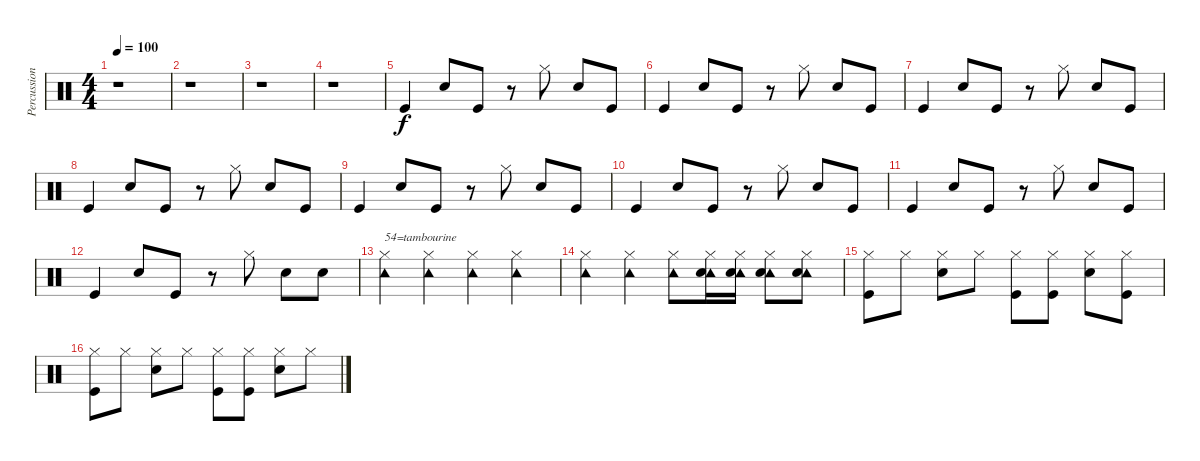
\track ("Percussion" "Percussion") {instrument percussion}
\staff {score}
\articulation defaults
\ts (4 4)
\tempo 100
\clef neutral
\ks c
r.1{dy f} |
r.1 |
r.1 |
r.1 |
"Kick (hit)".4 "Snare (hit) 2".8 "Kick (hit)".8 r.8 "Hi-Hat (closed)".8 "Snare (hit) 2".8 "Kick (hit)".8 |
"Kick (hit)".4 "Snare (hit) 2".8 "Kick (hit)".8 r.8 "Hi-Hat (closed)".8 "Snare (hit) 2".8 "Kick (hit)".8 |
"Kick (hit)".4 "Snare (hit) 2".8 "Kick (hit)".8 r.8 "Hi-Hat (closed)".8 "Snare (hit) 2".8 "Kick (hit)".8 |
"Kick (hit)".4 "Snare (hit) 2".8 "Kick (hit)".8 r.8 "Hi-Hat (closed)".8 "Snare (hit) 2".8 "Kick (hit)".8 |
"Kick (hit)".4 "Snare (hit) 2".8 "Kick (hit)".8 r.8 "Hi-Hat (closed)".8 "Snare (hit) 2".8 "Kick (hit)".8 |
"Kick (hit)".4 "Snare (hit) 2".8 "Kick (hit)".8 r.8 "Hi-Hat (closed)".8 "Snare (hit) 2".8 "Kick (hit)".8 |
"Kick (hit)".4 "Snare (hit) 2".8 "Kick (hit)".8 r.8 "Hi-Hat (closed)".8 "Snare (hit) 2".8 "Kick (hit)".8 |
"Kick (hit)".4 "Snare (hit) 2".8 "Kick (hit)".8 r.8 "Hi-Hat (closed)".8 "Snare (hit) 2".8 "Snare (hit) 2".8 |
("Hi-Hat (closed)" "Tambourine (hit)").4{txt "54=tambourine"} ("Hi-Hat (closed)" "Tambourine (hit)").4 ("Hi-Hat (closed)" "Tambourine (hit)").4 ("Hi-Hat (closed)" "Tambourine (hit)").4 |
("Hi-Hat (closed)" "Tambourine (hit)").4 ("Hi-Hat (closed)" "Tambourine (hit)").4 ("Hi-Hat (closed)" "Tambourine (hit)").8 ("Hi-Hat (closed)" "Tambourine (hit)" "Snare (hit) 2").16 ("Hi-Hat (closed)" "Tambourine (hit)" "Snare (hit) 2").16 ("Hi-Hat (closed)" "Tambourine (hit)" "Snare (hit) 2").8 ("Hi-Hat (closed)" "Tambourine (hit)" "Snare (hit) 2").8 |
("Hi-Hat (closed)" "Kick (hit)").8 "Hi-Hat (closed)".8 ("Hi-Hat (closed)" "Snare (hit) 2").8 "Hi-Hat (closed)".8 ("Hi-Hat (closed)" "Kick (hit)").8 ("Hi-Hat (closed)" "Kick (hit)").8 ("Hi-Hat (closed)" "Snare (hit) 2").8 ("Hi-Hat (closed)" "Kick (hit)").8 |
("Hi-Hat (closed)" "Kick (hit)").8 "Hi-Hat (closed)".8 ("Hi-Hat (closed)" "Snare (hit) 2").8 "Hi-Hat (closed)".8 ("Hi-Hat (closed)" "Kick (hit)").8 ("Hi-Hat (closed)" "Kick (hit)").8 ("Hi-Hat (closed)" "Snare (hit) 2").8 "Hi-Hat (closed)".8
